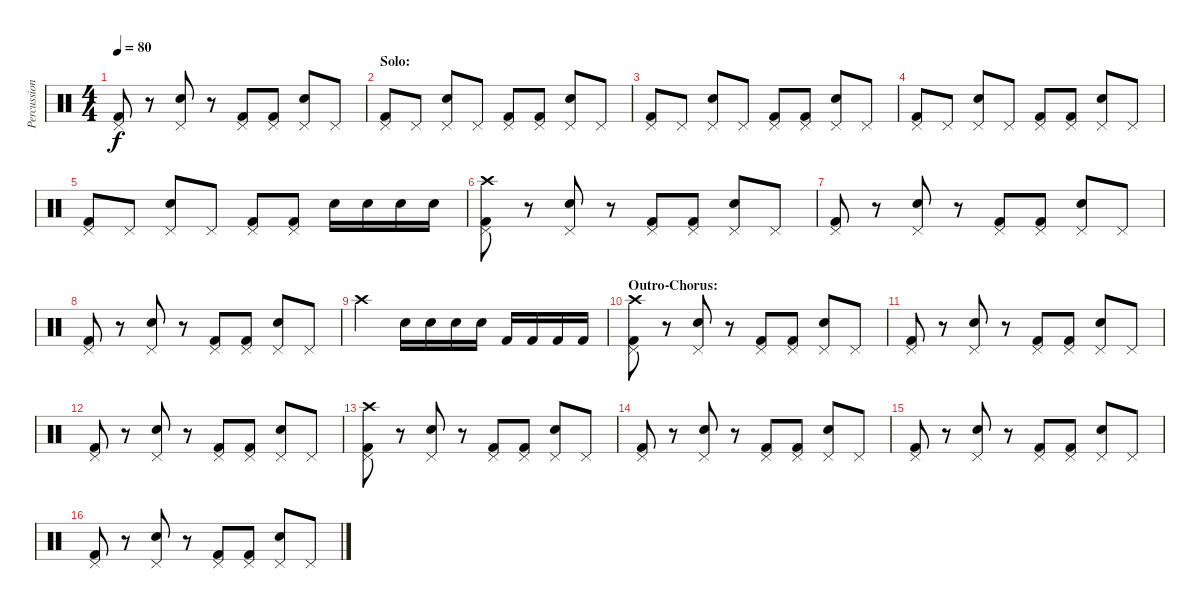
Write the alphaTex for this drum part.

\track ("Percussion" "Percussion") {instrument percussion}
\staff {score}
\articulation defaults
\ts (4 4)
\tempo 80
\clef neutral
\ks c
("Pedal Hi-Hat (hit)" "Kick (hit) 2").8{dy f} r.8 ("Pedal Hi-Hat (hit)" "Snare (hit) 2").8 r.8 ("Pedal Hi-Hat (hit)" "Kick (hit) 2").8 ("Pedal Hi-Hat (hit)" "Kick (hit) 2").8 ("Pedal Hi-Hat (hit)" "Snare (hit) 2").8 "Pedal Hi-Hat (hit)".8 |
\section ("" "Solo:")
("Pedal Hi-Hat (hit)" "Kick (hit) 2").8 "Pedal Hi-Hat (hit)".8 ("Pedal Hi-Hat (hit)" "Snare (hit) 2").8 "Pedal Hi-Hat (hit)".8 ("Pedal Hi-Hat (hit)" "Kick (hit) 2").8 ("Pedal Hi-Hat (hit)" "Kick (hit) 2").8 ("Pedal Hi-Hat (hit)" "Snare (hit) 2").8 "Pedal Hi-Hat (hit)".8 |
("Pedal Hi-Hat (hit)" "Kick (hit) 2").8 "Pedal Hi-Hat (hit)".8 ("Pedal Hi-Hat (hit)" "Snare (hit) 2").8 "Pedal Hi-Hat (hit)".8 ("Pedal Hi-Hat (hit)" "Kick (hit) 2").8 ("Pedal Hi-Hat (hit)" "Kick (hit) 2").8 ("Pedal Hi-Hat (hit)" "Snare (hit) 2").8 "Pedal Hi-Hat (hit)".8 |
("Pedal Hi-Hat (hit)" "Kick (hit) 2").8 "Pedal Hi-Hat (hit)".8 ("Pedal Hi-Hat (hit)" "Snare (hit) 2").8 "Pedal Hi-Hat (hit)".8 ("Pedal Hi-Hat (hit)" "Kick (hit) 2").8 ("Pedal Hi-Hat (hit)" "Kick (hit) 2").8 ("Pedal Hi-Hat (hit)" "Snare (hit) 2").8 "Pedal Hi-Hat (hit)".8 |
("Pedal Hi-Hat (hit)" "Kick (hit) 2").8 "Pedal Hi-Hat (hit)".8 ("Pedal Hi-Hat (hit)" "Snare (hit) 2").8 "Pedal Hi-Hat (hit)".8 ("Pedal Hi-Hat (hit)" "Kick (hit) 2").8 ("Pedal Hi-Hat (hit)" "Kick (hit) 2").8 "Snare (hit) 2".16 "Snare (hit) 2".16 "Snare (hit) 2".16 "Snare (hit) 2".16 |
("Pedal Hi-Hat (hit)" "Crash high (hit)" "Kick (hit) 2").8 r.8 ("Pedal Hi-Hat (hit)" "Snare (hit) 2").8 r.8 ("Pedal Hi-Hat (hit)" "Kick (hit) 2").8 ("Pedal Hi-Hat (hit)" "Kick (hit) 2").8 ("Pedal Hi-Hat (hit)" "Snare (hit) 2").8 "Pedal Hi-Hat (hit)".8 |
("Pedal Hi-Hat (hit)" "Kick (hit) 2").8 r.8 ("Pedal Hi-Hat (hit)" "Snare (hit) 2").8 r.8 ("Pedal Hi-Hat (hit)" "Kick (hit) 2").8 ("Pedal Hi-Hat (hit)" "Kick (hit) 2").8 ("Pedal Hi-Hat (hit)" "Snare (hit) 2").8 "Pedal Hi-Hat (hit)".8 |
("Pedal Hi-Hat (hit)" "Kick (hit) 2").8 r.8 ("Pedal Hi-Hat (hit)" "Snare (hit) 2").8 r.8 ("Pedal Hi-Hat (hit)" "Kick (hit) 2").8 ("Pedal Hi-Hat (hit)" "Kick (hit) 2").8 ("Pedal Hi-Hat (hit)" "Snare (hit) 2").8 "Pedal Hi-Hat (hit)".8 |
"Crash high (hit)".2 "Snare (hit) 2".16 "Snare (hit) 2".16 "Snare (hit) 2".16 "Snare (hit) 2".16 "Kick (hit) 2".16 "Kick (hit) 2".16 "Kick (hit) 2".16 "Kick (hit) 2".16 |
\section ("" "Outro-Chorus:")
("Pedal Hi-Hat (hit)" "Crash high (hit)" "Kick (hit) 2").8 r.8 ("Pedal Hi-Hat (hit)" "Snare (hit) 2").8 r.8 ("Pedal Hi-Hat (hit)" "Kick (hit) 2").8 ("Pedal Hi-Hat (hit)" "Kick (hit) 2").8 ("Pedal Hi-Hat (hit)" "Snare (hit) 2").8 "Pedal Hi-Hat (hit)".8 |
("Pedal Hi-Hat (hit)" "Kick (hit) 2").8 r.8 ("Pedal Hi-Hat (hit)" "Snare (hit) 2").8 r.8 ("Pedal Hi-Hat (hit)" "Kick (hit) 2").8 ("Pedal Hi-Hat (hit)" "Kick (hit) 2").8 ("Pedal Hi-Hat (hit)" "Snare (hit) 2").8 "Pedal Hi-Hat (hit)".8 |
("Pedal Hi-Hat (hit)" "Kick (hit) 2").8 r.8 ("Pedal Hi-Hat (hit)" "Snare (hit) 2").8 r.8 ("Pedal Hi-Hat (hit)" "Kick (hit) 2").8 ("Pedal Hi-Hat (hit)" "Kick (hit) 2").8 ("Pedal Hi-Hat (hit)" "Snare (hit) 2").8 "Pedal Hi-Hat (hit)".8 |
("Pedal Hi-Hat (hit)" "Crash high (hit)" "Kick (hit) 2").8 r.8 ("Pedal Hi-Hat (hit)" "Snare (hit) 2").8 r.8 ("Pedal Hi-Hat (hit)" "Kick (hit) 2").8 ("Pedal Hi-Hat (hit)" "Kick (hit) 2").8 ("Pedal Hi-Hat (hit)" "Snare (hit) 2").8 "Pedal Hi-Hat (hit)".8 |
("Pedal Hi-Hat (hit)" "Kick (hit) 2").8 r.8 ("Pedal Hi-Hat (hit)" "Snare (hit) 2").8 r.8 ("Pedal Hi-Hat (hit)" "Kick (hit) 2").8 ("Pedal Hi-Hat (hit)" "Kick (hit) 2").8 ("Pedal Hi-Hat (hit)" "Snare (hit) 2").8 "Pedal Hi-Hat (hit)".8 |
("Pedal Hi-Hat (hit)" "Kick (hit) 2").8 r.8 ("Pedal Hi-Hat (hit)" "Snare (hit) 2").8 r.8 ("Pedal Hi-Hat (hit)" "Kick (hit) 2").8 ("Pedal Hi-Hat (hit)" "Kick (hit) 2").8 ("Pedal Hi-Hat (hit)" "Snare (hit) 2").8 "Pedal Hi-Hat (hit)".8 |
("Pedal Hi-Hat (hit)" "Kick (hit) 2").8 r.8 ("Pedal Hi-Hat (hit)" "Snare (hit) 2").8 r.8 ("Pedal Hi-Hat (hit)" "Kick (hit) 2").8 ("Pedal Hi-Hat (hit)" "Kick (hit) 2").8 ("Pedal Hi-Hat (hit)" "Snare (hit) 2").8 "Pedal Hi-Hat (hit)".8
